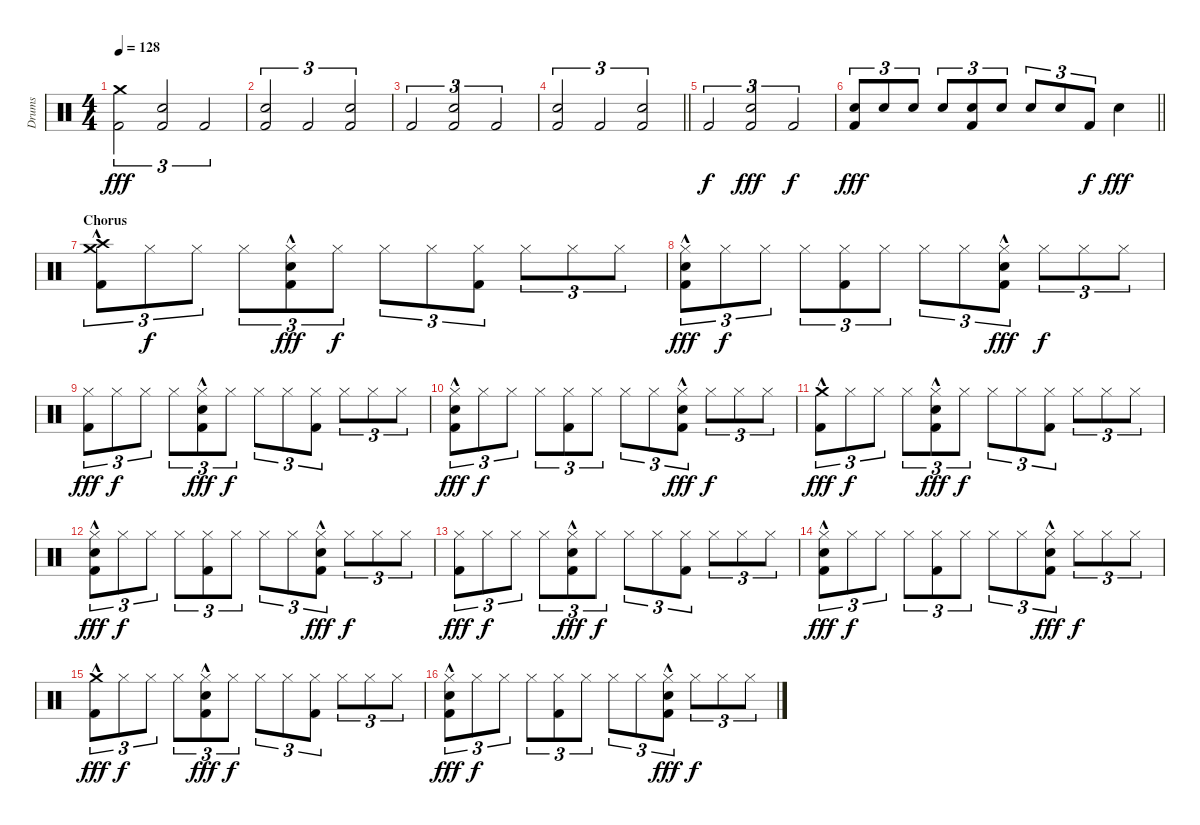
\track ("Drums" "Drums") {instrument percussion}
\staff {score}
\articulation defaults
\ts (4 4)
\tempo 128
\clef neutral
\ks c
("Crash medium (hit)" "Kick (hit) 2").2{tu (3 2) dy fff} ("Snare (hit) 2" "Kick (hit) 2").2{tu (3 2)} "Kick (hit) 2".2{tu (3 2)} |
("Snare (hit) 2" "Kick (hit) 2").2{tu (3 2)} "Kick (hit) 2".2{tu (3 2)} ("Snare (hit) 2" "Kick (hit) 2").2{tu (3 2)} |
"Kick (hit) 2".2{tu (3 2)} ("Snare (hit) 2" "Kick (hit) 2").2{tu (3 2)} "Kick (hit) 2".2{tu (3 2)} |
\barLineRight lightlight
("Snare (hit) 2" "Kick (hit) 2").2{tu (3 2)} "Kick (hit) 2".2{tu (3 2)} ("Snare (hit) 2" "Kick (hit) 2").2{tu (3 2)} |
\section ("" " ")
"Kick (hit) 2".2{tu (3 2) dy f} ("Snare (hit) 2" "Kick (hit) 2").2{tu (3 2) dy fff} "Kick (hit) 2".2{tu (3 2) dy f} |
\barLineRight lightlight
("Snare (hit) 2" "Kick (hit) 2").8{tu (3 2) dy fff} "Snare (hit) 2".8{tu (3 2)} "Snare (hit) 2".8{tu (3 2)} "Snare (hit) 2".8{tu (3 2)} ("Snare (hit) 2" "Kick (hit) 2").8{tu (3 2)} "Snare (hit) 2".8{tu (3 2)} "Snare (hit) 2".8{tu (3 2)} "Snare (hit) 2".8{tu (3 2)} "Kick (hit) 2".8{tu (3 2) dy f} "Snare (hit) 2".4{dy fff} |
\section ("" "Chorus")
("Crash high (hit)"{hac} "Crash medium (hit)"{hac} "Kick (hit) 2").8{tu (3 2)} "Hi-Hat (closed)".8{tu (3 2) dy f} "Hi-Hat (closed)".8{tu (3 2)} "Hi-Hat (closed)".8{tu (3 2)} ("Hi-Hat (closed)" "Snare (hit) 2"{hac} "Kick (hit) 2").8{tu (3 2) dy fff} "Hi-Hat (closed)".8{tu (3 2) dy f} "Hi-Hat (closed)".8{tu (3 2)} "Hi-Hat (closed)".8{tu (3 2)} ("Hi-Hat (closed)" "Kick (hit) 2").8{tu (3 2)} "Hi-Hat (closed)".8{tu (3 2)} "Hi-Hat (closed)".8{tu (3 2)} "Hi-Hat (closed)".8{tu (3 2)} |
("Hi-Hat (closed)" "Snare (hit) 2"{hac} "Kick (hit) 2").8{tu (3 2) dy fff} "Hi-Hat (closed)".8{tu (3 2) dy f} "Hi-Hat (closed)".8{tu (3 2)} "Hi-Hat (closed)".8{tu (3 2)} ("Hi-Hat (closed)" "Kick (hit) 2").8{tu (3 2)} "Hi-Hat (closed)".8{tu (3 2)} "Hi-Hat (closed)".8{tu (3 2)} "Hi-Hat (closed)".8{tu (3 2)} ("Hi-Hat (closed)" "Snare (hit) 2"{hac} "Kick (hit) 2").8{tu (3 2) dy fff} "Hi-Hat (closed)".8{tu (3 2) dy f} "Hi-Hat (closed)".8{tu (3 2)} "Hi-Hat (closed)".8{tu (3 2)} |
("Hi-Hat (closed)" "Kick (hit) 2").8{tu (3 2) dy fff} "Hi-Hat (closed)".8{tu (3 2) dy f} "Hi-Hat (closed)".8{tu (3 2)} "Hi-Hat (closed)".8{tu (3 2)} ("Hi-Hat (closed)" "Snare (hit) 2"{hac} "Kick (hit) 2").8{tu (3 2) dy fff} "Hi-Hat (closed)".8{tu (3 2) dy f} "Hi-Hat (closed)".8{tu (3 2)} "Hi-Hat (closed)".8{tu (3 2)} ("Hi-Hat (closed)" "Kick (hit) 2").8{tu (3 2)} "Hi-Hat (closed)".8{tu (3 2)} "Hi-Hat (closed)".8{tu (3 2)} "Hi-Hat (closed)".8{tu (3 2)} |
("Hi-Hat (closed)" "Snare (hit) 2"{hac} "Kick (hit) 2").8{tu (3 2) dy fff} "Hi-Hat (closed)".8{tu (3 2) dy f} "Hi-Hat (closed)".8{tu (3 2)} "Hi-Hat (closed)".8{tu (3 2)} ("Hi-Hat (closed)" "Kick (hit) 2").8{tu (3 2)} "Hi-Hat (closed)".8{tu (3 2)} "Hi-Hat (closed)".8{tu (3 2)} "Hi-Hat (closed)".8{tu (3 2)} ("Hi-Hat (closed)" "Snare (hit) 2"{hac} "Kick (hit) 2").8{tu (3 2) dy fff} "Hi-Hat (closed)".8{tu (3 2) dy f} "Hi-Hat (closed)".8{tu (3 2)} "Hi-Hat (closed)".8{tu (3 2)} |
("Crash medium (hit)"{hac} "Kick (hit) 2").8{tu (3 2) dy fff} "Hi-Hat (closed)".8{tu (3 2) dy f} "Hi-Hat (closed)".8{tu (3 2)} "Hi-Hat (closed)".8{tu (3 2)} ("Hi-Hat (closed)" "Snare (hit) 2"{hac} "Kick (hit) 2").8{tu (3 2) dy fff} "Hi-Hat (closed)".8{tu (3 2) dy f} "Hi-Hat (closed)".8{tu (3 2)} "Hi-Hat (closed)".8{tu (3 2)} ("Hi-Hat (closed)" "Kick (hit) 2").8{tu (3 2)} "Hi-Hat (closed)".8{tu (3 2)} "Hi-Hat (closed)".8{tu (3 2)} "Hi-Hat (closed)".8{tu (3 2)} |
("Hi-Hat (closed)" "Snare (hit) 2"{hac} "Kick (hit) 2").8{tu (3 2) dy fff} "Hi-Hat (closed)".8{tu (3 2) dy f} "Hi-Hat (closed)".8{tu (3 2)} "Hi-Hat (closed)".8{tu (3 2)} ("Hi-Hat (closed)" "Kick (hit) 2").8{tu (3 2)} "Hi-Hat (closed)".8{tu (3 2)} "Hi-Hat (closed)".8{tu (3 2)} "Hi-Hat (closed)".8{tu (3 2)} ("Hi-Hat (closed)" "Snare (hit) 2"{hac} "Kick (hit) 2").8{tu (3 2) dy fff} "Hi-Hat (closed)".8{tu (3 2) dy f} "Hi-Hat (closed)".8{tu (3 2)} "Hi-Hat (closed)".8{tu (3 2)} |
("Hi-Hat (closed)" "Kick (hit) 2").8{tu (3 2) dy fff} "Hi-Hat (closed)".8{tu (3 2) dy f} "Hi-Hat (closed)".8{tu (3 2)} "Hi-Hat (closed)".8{tu (3 2)} ("Hi-Hat (closed)" "Snare (hit) 2"{hac} "Kick (hit) 2").8{tu (3 2) dy fff} "Hi-Hat (closed)".8{tu (3 2) dy f} "Hi-Hat (closed)".8{tu (3 2)} "Hi-Hat (closed)".8{tu (3 2)} ("Hi-Hat (closed)" "Kick (hit) 2").8{tu (3 2)} "Hi-Hat (closed)".8{tu (3 2)} "Hi-Hat (closed)".8{tu (3 2)} "Hi-Hat (closed)".8{tu (3 2)} |
("Hi-Hat (closed)" "Snare (hit) 2"{hac} "Kick (hit) 2").8{tu (3 2) dy fff} "Hi-Hat (closed)".8{tu (3 2) dy f} "Hi-Hat (closed)".8{tu (3 2)} "Hi-Hat (closed)".8{tu (3 2)} ("Hi-Hat (closed)" "Kick (hit) 2").8{tu (3 2)} "Hi-Hat (closed)".8{tu (3 2)} "Hi-Hat (closed)".8{tu (3 2)} "Hi-Hat (closed)".8{tu (3 2)} ("Hi-Hat (closed)" "Snare (hit) 2"{hac} "Kick (hit) 2").8{tu (3 2) dy fff} "Hi-Hat (closed)".8{tu (3 2) dy f} "Hi-Hat (closed)".8{tu (3 2)} "Hi-Hat (closed)".8{tu (3 2)} |
("Crash medium (hit)"{hac} "Kick (hit) 2").8{tu (3 2) dy fff} "Hi-Hat (closed)".8{tu (3 2) dy f} "Hi-Hat (closed)".8{tu (3 2)} "Hi-Hat (closed)".8{tu (3 2)} ("Hi-Hat (closed)" "Snare (hit) 2"{hac} "Kick (hit) 2").8{tu (3 2) dy fff} "Hi-Hat (closed)".8{tu (3 2) dy f} "Hi-Hat (closed)".8{tu (3 2)} "Hi-Hat (closed)".8{tu (3 2)} ("Hi-Hat (closed)" "Kick (hit) 2").8{tu (3 2)} "Hi-Hat (closed)".8{tu (3 2)} "Hi-Hat (closed)".8{tu (3 2)} "Hi-Hat (closed)".8{tu (3 2)} |
("Hi-Hat (closed)" "Snare (hit) 2"{hac} "Kick (hit) 2").8{tu (3 2) dy fff} "Hi-Hat (closed)".8{tu (3 2) dy f} "Hi-Hat (closed)".8{tu (3 2)} "Hi-Hat (closed)".8{tu (3 2)} ("Hi-Hat (closed)" "Kick (hit) 2").8{tu (3 2)} "Hi-Hat (closed)".8{tu (3 2)} "Hi-Hat (closed)".8{tu (3 2)} "Hi-Hat (closed)".8{tu (3 2)} ("Hi-Hat (closed)" "Snare (hit) 2"{hac} "Kick (hit) 2").8{tu (3 2) dy fff} "Hi-Hat (closed)".8{tu (3 2) dy f} "Hi-Hat (closed)".8{tu (3 2)} "Hi-Hat (closed)".8{tu (3 2)}
